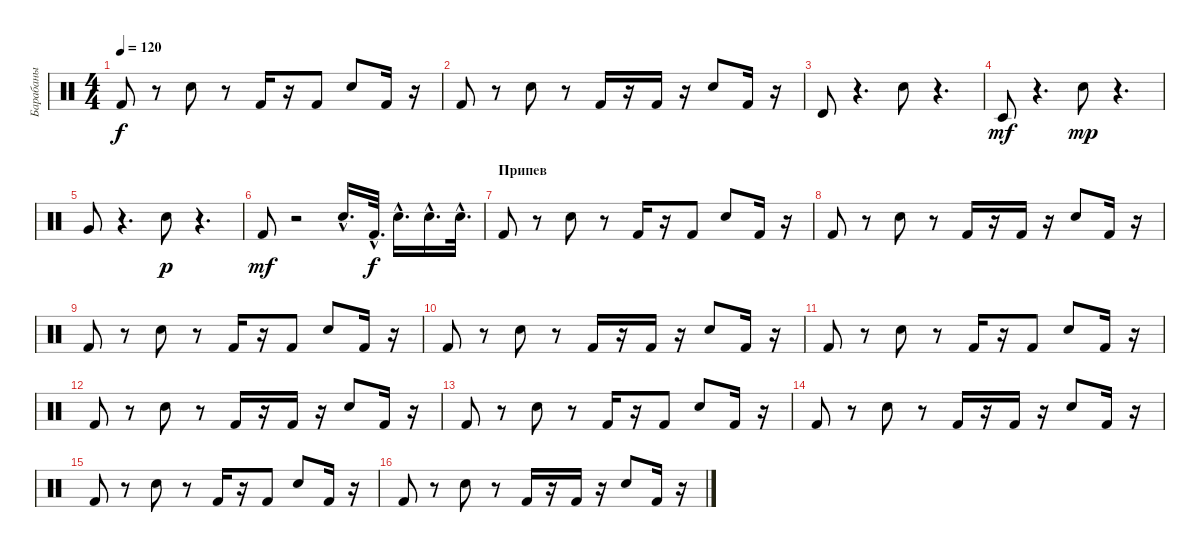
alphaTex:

\track ("Барабаны" "Барабаны") {instrument percussion}
\staff {score}
\articulation defaults
\ts (4 4)
\tempo 120
\clef neutral
\ks c "Kick (hit) 2".8{dy f}
r.8 "Electric Snare (hit)".8 r.8 "Kick (hit) 2".16 r.16 "Kick (hit) 2".8 "Electric Snare (hit)".8 "Kick (hit) 2".16 r.16 |
"Kick (hit) 2".8 r.8 "Electric Snare (hit)".8 r.8 "Kick (hit) 2".16 r.16 "Kick (hit) 2".16 r.16 "Electric Snare (hit)".8 "Kick (hit) 2".16 r.16 |
"Timbale high (hit)".8 r.4{d} "Electric Snare (hit)".8 r.4{d} |
"Timbale low (hit)".8{dy mf} r.4{d} "Electric Snare (hit)".8{dy mp} r.4{d} |
"Very Low Tom (hit)".8 r.4{d} "Electric Snare (hit)".8{dy p} r.4{d} |
"Kick (hit) 2".8{dy mf} r.2 "Electric Snare (hit)"{hac}.16{d} "Kick (hit) 2"{hac}.32{d dy f} "Electric Snare (hit)"{hac}.16{d} "Electric Snare (hit)"{hac}.16{d} "Electric Snare (hit)"{hac}.32{d} |
\section ("" "Припев")
"Kick (hit) 2".8 r.8 "Electric Snare (hit)".8 r.8 "Kick (hit) 2".16 r.16 "Kick (hit) 2".8 "Electric Snare (hit)".8 "Kick (hit) 2".16 r.16 |
"Kick (hit) 2".8 r.8 "Electric Snare (hit)".8 r.8 "Kick (hit) 2".16 r.16 "Kick (hit) 2".16 r.16 "Electric Snare (hit)".8 "Kick (hit) 2".16 r.16 |
"Kick (hit) 2".8 r.8 "Electric Snare (hit)".8 r.8 "Kick (hit) 2".16 r.16 "Kick (hit) 2".8 "Electric Snare (hit)".8 "Kick (hit) 2".16 r.16 |
"Kick (hit) 2".8 r.8 "Electric Snare (hit)".8 r.8 "Kick (hit) 2".16 r.16 "Kick (hit) 2".16 r.16 "Electric Snare (hit)".8 "Kick (hit) 2".16 r.16 |
"Kick (hit) 2".8 r.8 "Electric Snare (hit)".8 r.8 "Kick (hit) 2".16 r.16 "Kick (hit) 2".8 "Electric Snare (hit)".8 "Kick (hit) 2".16 r.16 |
"Kick (hit) 2".8 r.8 "Electric Snare (hit)".8 r.8 "Kick (hit) 2".16 r.16 "Kick (hit) 2".16 r.16 "Electric Snare (hit)".8 "Kick (hit) 2".16 r.16 |
"Kick (hit) 2".8 r.8 "Electric Snare (hit)".8 r.8 "Kick (hit) 2".16 r.16 "Kick (hit) 2".8 "Electric Snare (hit)".8 "Kick (hit) 2".16 r.16 |
"Kick (hit) 2".8 r.8 "Electric Snare (hit)".8 r.8 "Kick (hit) 2".16 r.16 "Kick (hit) 2".16 r.16 "Electric Snare (hit)".8 "Kick (hit) 2".16 r.16 |
"Kick (hit) 2".8 r.8 "Electric Snare (hit)".8 r.8 "Kick (hit) 2".16 r.16 "Kick (hit) 2".8 "Electric Snare (hit)".8 "Kick (hit) 2".16 r.16 |
"Kick (hit) 2".8 r.8 "Electric Snare (hit)".8 r.8 "Kick (hit) 2".16 r.16 "Kick (hit) 2".16 r.16 "Electric Snare (hit)".8 "Kick (hit) 2".16 r.16
